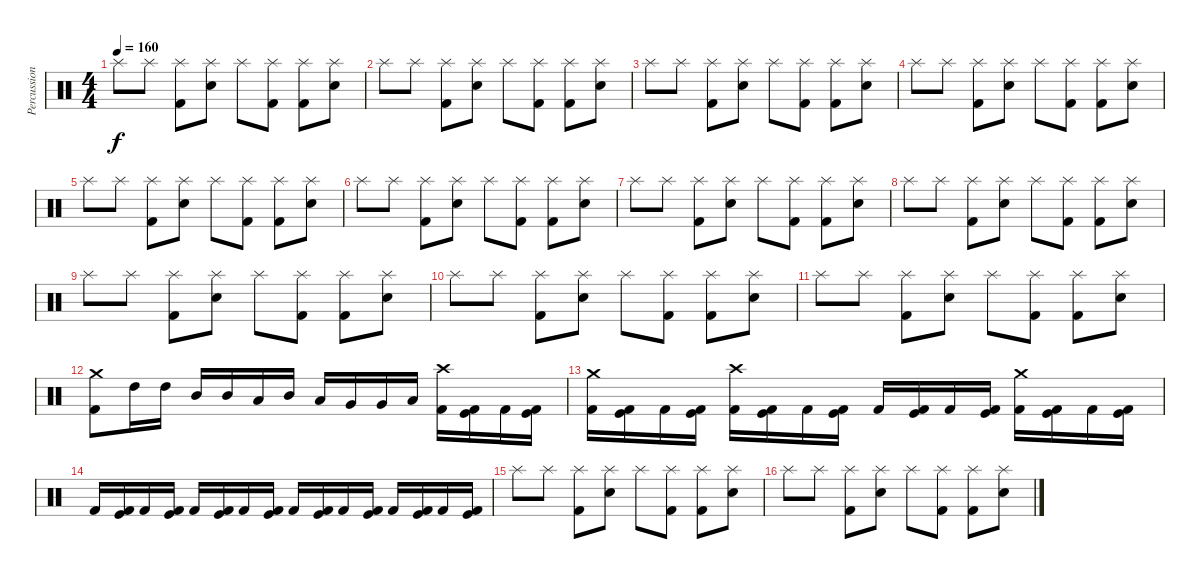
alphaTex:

\track ("Percussion" "Percussion") {instrument percussion}
\staff {score}
\articulation defaults
\ts (4 4)
\tempo 160
\clef neutral
\ks c "Splash (hit)".8{dy f} "Splash (hit)".8
("Splash (hit)" "Kick (hit) 2").8 ("Splash (hit)" "Electric Snare (hit)").8 "Splash (hit)".8 ("Splash (hit)" "Kick (hit) 2").8 ("Splash (hit)" "Kick (hit) 2").8 ("Splash (hit)" "Electric Snare (hit)").8 |
"Splash (hit)".8 "Splash (hit)".8 ("Splash (hit)" "Kick (hit) 2").8 ("Splash (hit)" "Electric Snare (hit)").8 "Splash (hit)".8 ("Splash (hit)" "Kick (hit) 2").8 ("Splash (hit)" "Kick (hit) 2").8 ("Splash (hit)" "Electric Snare (hit)").8 |
"Splash (hit)".8 "Splash (hit)".8 ("Splash (hit)" "Kick (hit) 2").8 ("Splash (hit)" "Electric Snare (hit)").8 "Splash (hit)".8 ("Splash (hit)" "Kick (hit) 2").8 ("Splash (hit)" "Kick (hit) 2").8 ("Splash (hit)" "Electric Snare (hit)").8 |
"Splash (hit)".8 "Splash (hit)".8 ("Splash (hit)" "Kick (hit) 2").8 ("Splash (hit)" "Electric Snare (hit)").8 "Splash (hit)".8 ("Splash (hit)" "Kick (hit) 2").8 ("Splash (hit)" "Kick (hit) 2").8 ("Splash (hit)" "Electric Snare (hit)").8 |
"Splash (hit)".8 "Splash (hit)".8 ("Splash (hit)" "Kick (hit) 2").8 ("Splash (hit)" "Electric Snare (hit)").8 "Splash (hit)".8 ("Splash (hit)" "Kick (hit) 2").8 ("Splash (hit)" "Kick (hit) 2").8 ("Splash (hit)" "Electric Snare (hit)").8 |
"Splash (hit)".8 "Splash (hit)".8 ("Splash (hit)" "Kick (hit) 2").8 ("Splash (hit)" "Electric Snare (hit)").8 "Splash (hit)".8 ("Splash (hit)" "Kick (hit) 2").8 ("Splash (hit)" "Kick (hit) 2").8 ("Splash (hit)" "Electric Snare (hit)").8 |
"Splash (hit)".8 "Splash (hit)".8 ("Splash (hit)" "Kick (hit) 2").8 ("Splash (hit)" "Electric Snare (hit)").8 "Splash (hit)".8 ("Splash (hit)" "Kick (hit) 2").8 ("Splash (hit)" "Kick (hit) 2").8 ("Splash (hit)" "Electric Snare (hit)").8 |
"Splash (hit)".8 "Splash (hit)".8 ("Splash (hit)" "Kick (hit) 2").8 ("Splash (hit)" "Electric Snare (hit)").8 "Splash (hit)".8 ("Splash (hit)" "Kick (hit) 2").8 ("Splash (hit)" "Kick (hit) 2").8 ("Splash (hit)" "Electric Snare (hit)").8 |
"Splash (hit)".8 "Splash (hit)".8 ("Splash (hit)" "Kick (hit) 2").8 ("Splash (hit)" "Electric Snare (hit)").8 "Splash (hit)".8 ("Splash (hit)" "Kick (hit) 2").8 ("Splash (hit)" "Kick (hit) 2").8 ("Splash (hit)" "Electric Snare (hit)").8 |
"Splash (hit)".8 "Splash (hit)".8 ("Splash (hit)" "Kick (hit) 2").8 ("Splash (hit)" "Electric Snare (hit)").8 "Splash (hit)".8 ("Splash (hit)" "Kick (hit) 2").8 ("Splash (hit)" "Kick (hit) 2").8 ("Splash (hit)" "Electric Snare (hit)").8 |
"Splash (hit)".8 "Splash (hit)".8 ("Splash (hit)" "Kick (hit) 2").8 ("Splash (hit)" "Electric Snare (hit)").8 "Splash (hit)".8 ("Splash (hit)" "Kick (hit) 2").8 ("Splash (hit)" "Kick (hit) 2").8 ("Splash (hit)" "Electric Snare (hit)").8 |
("Crash medium (hit)" "Kick (hit) 2").8 "High Tom (hit)".16 "High Tom (hit)".16 "Mid Tom (hit)".16 "Mid Tom (hit)".16 "Low Tom (hit)".16 "Mid Tom (hit)".16 "Low Tom (hit)".16 "Very Low Tom (hit)".16 "Very Low Tom (hit)".16 "Low Floor Tom (hit)".16 ("Crash high (hit)" "Kick (hit) 2").16 ("Kick (hit)" "Kick (hit) 2").16 "Kick (hit) 2".16 ("Kick (hit)" "Kick (hit) 2").16 |
("Crash medium (hit)" "Kick (hit) 2").16 ("Kick (hit)" "Kick (hit) 2").16 "Kick (hit) 2".16 ("Kick (hit)" "Kick (hit) 2").16 ("Crash high (hit)" "Kick (hit) 2").16 ("Kick (hit)" "Kick (hit) 2").16 "Kick (hit) 2".16 ("Kick (hit)" "Kick (hit) 2").16 "Kick (hit) 2".16 ("Kick (hit)" "Kick (hit) 2").16 "Kick (hit) 2".16 ("Kick (hit)" "Kick (hit) 2").16 ("Crash medium (hit)" "Kick (hit) 2").16 ("Kick (hit)" "Kick (hit) 2").16 "Kick (hit) 2".16 ("Kick (hit)" "Kick (hit) 2").16 |
"Kick (hit) 2".16 ("Kick (hit)" "Kick (hit) 2").16 "Kick (hit) 2".16 ("Kick (hit)" "Kick (hit) 2").16 "Kick (hit) 2".16 ("Kick (hit)" "Kick (hit) 2").16 "Kick (hit) 2".16 ("Kick (hit)" "Kick (hit) 2").16 "Kick (hit) 2".16 ("Kick (hit)" "Kick (hit) 2").16 "Kick (hit) 2".16 ("Kick (hit)" "Kick (hit) 2").16 "Kick (hit) 2".16 ("Kick (hit)" "Kick (hit) 2").16 "Kick (hit) 2".16 ("Kick (hit)" "Kick (hit) 2").16 |
"Splash (hit)".8 "Splash (hit)".8 ("Splash (hit)" "Kick (hit) 2").8 ("Splash (hit)" "Electric Snare (hit)").8 "Splash (hit)".8 ("Splash (hit)" "Kick (hit) 2").8 ("Splash (hit)" "Kick (hit) 2").8 ("Splash (hit)" "Electric Snare (hit)").8 |
"Splash (hit)".8 "Splash (hit)".8 ("Splash (hit)" "Kick (hit) 2").8 ("Splash (hit)" "Electric Snare (hit)").8 "Splash (hit)".8 ("Splash (hit)" "Kick (hit) 2").8 ("Splash (hit)" "Kick (hit) 2").8 ("Splash (hit)" "Electric Snare (hit)").8
